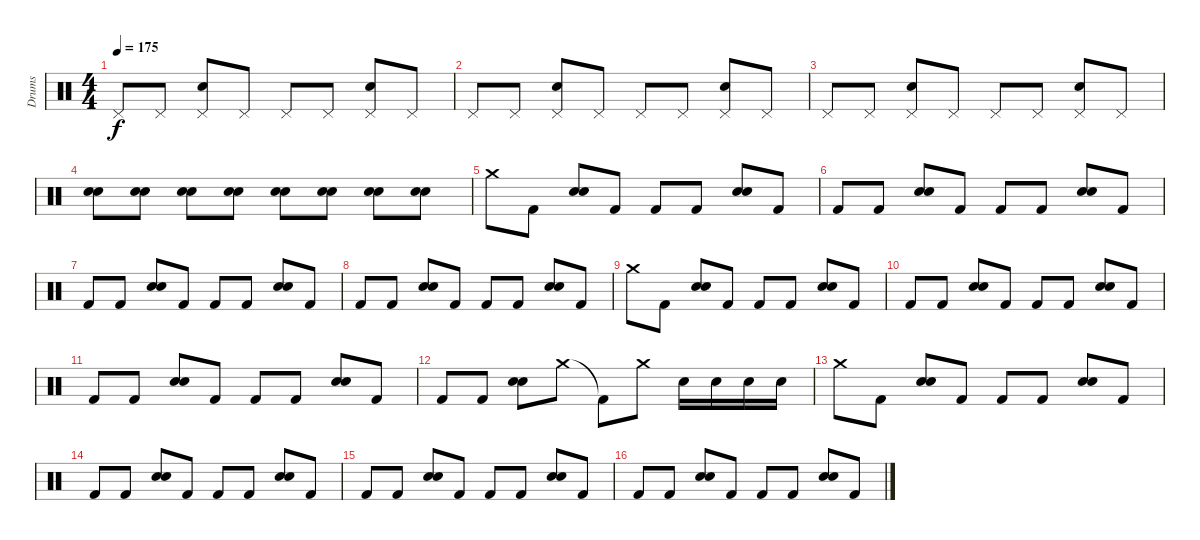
\track ("Drums" "Drums") {instrument percussion}
\staff {score}
\articulation defaults
\ts (4 4)
\tempo 175
\clef neutral
\ks c "Pedal Hi-Hat (hit)".8{dy f} "Pedal Hi-Hat (hit)".8
("Pedal Hi-Hat (hit)" "Snare (hit) 2").8 "Pedal Hi-Hat (hit)".8 "Pedal Hi-Hat (hit)".8 "Pedal Hi-Hat (hit)".8 ("Pedal Hi-Hat (hit)" "Snare (hit) 2").8 "Pedal Hi-Hat (hit)".8 |
"Pedal Hi-Hat (hit)".8 "Pedal Hi-Hat (hit)".8 ("Pedal Hi-Hat (hit)" "Snare (hit) 2").8 "Pedal Hi-Hat (hit)".8 "Pedal Hi-Hat (hit)".8 "Pedal Hi-Hat (hit)".8 ("Pedal Hi-Hat (hit)" "Snare (hit) 2").8 "Pedal Hi-Hat (hit)".8 |
"Pedal Hi-Hat (hit)".8 "Pedal Hi-Hat (hit)".8 ("Pedal Hi-Hat (hit)" "Snare (hit) 2").8 "Pedal Hi-Hat (hit)".8 "Pedal Hi-Hat (hit)".8 "Pedal Hi-Hat (hit)".8 ("Pedal Hi-Hat (hit)" "Snare (hit) 2").8 "Pedal Hi-Hat (hit)".8 |
("Snare (hit) 2" "Snare (hit) 2").8{volume 4} ("Snare (hit) 2" "Snare (hit) 2").8 ("Snare (hit) 2" "Snare (hit) 2").8{volume 13} ("Snare (hit) 2" "Snare (hit) 2").8 ("Snare (hit) 2" "Snare (hit) 2").8 ("Snare (hit) 2" "Snare (hit) 2").8 ("Snare (hit) 2" "Snare (hit) 2").8 ("Snare (hit) 2" "Snare (hit) 2").8 |
"Crash medium (hit)".8 "Kick (hit) 2".8 ("Snare (hit) 2" "Snare (hit) 2").8 "Kick (hit) 2".8 "Kick (hit) 2".8 "Kick (hit) 2".8 ("Snare (hit) 2" "Snare (hit) 2").8 "Kick (hit) 2".8 |
"Kick (hit) 2".8 "Kick (hit) 2".8 ("Snare (hit) 2" "Snare (hit) 2").8 "Kick (hit) 2".8 "Kick (hit) 2".8 "Kick (hit) 2".8 ("Snare (hit) 2" "Snare (hit) 2").8 "Kick (hit) 2".8 |
"Kick (hit) 2".8 "Kick (hit) 2".8 ("Snare (hit) 2" "Snare (hit) 2").8 "Kick (hit) 2".8 "Kick (hit) 2".8 "Kick (hit) 2".8 ("Snare (hit) 2" "Snare (hit) 2").8 "Kick (hit) 2".8 |
"Kick (hit) 2".8 "Kick (hit) 2".8 ("Snare (hit) 2" "Snare (hit) 2").8 "Kick (hit) 2".8 "Kick (hit) 2".8 "Kick (hit) 2".8 ("Snare (hit) 2" "Snare (hit) 2").8 "Kick (hit) 2".8 |
"Crash medium (hit)".8 "Kick (hit) 2".8 ("Snare (hit) 2" "Snare (hit) 2").8 "Kick (hit) 2".8 "Kick (hit) 2".8 "Kick (hit) 2".8 ("Snare (hit) 2" "Snare (hit) 2").8 "Kick (hit) 2".8 |
"Kick (hit) 2".8 "Kick (hit) 2".8 ("Snare (hit) 2" "Snare (hit) 2").8 "Kick (hit) 2".8 "Kick (hit) 2".8 "Kick (hit) 2".8 ("Snare (hit) 2" "Snare (hit) 2").8 "Kick (hit) 2".8 |
"Kick (hit) 2".8 "Kick (hit) 2".8 ("Snare (hit) 2" "Snare (hit) 2").8 "Kick (hit) 2".8 "Kick (hit) 2".8 "Kick (hit) 2".8 ("Snare (hit) 2" "Snare (hit) 2").8 "Kick (hit) 2".8 |
"Kick (hit) 2".8 "Kick (hit) 2".8 ("Snare (hit) 2" "Snare (hit) 2").8 "Crash medium (hit)".8 "Kick (hit) 2"{t}.8 "Crash medium (hit)".8 "Snare (hit) 2".16 "Snare (hit) 2".16 "Snare (hit) 2".16 "Snare (hit) 2".16 |
"Crash medium (hit)".8 "Kick (hit) 2".8 ("Snare (hit) 2" "Snare (hit) 2").8 "Kick (hit) 2".8 "Kick (hit) 2".8 "Kick (hit) 2".8 ("Snare (hit) 2" "Snare (hit) 2").8 "Kick (hit) 2".8 |
"Kick (hit) 2".8 "Kick (hit) 2".8 ("Snare (hit) 2" "Snare (hit) 2").8 "Kick (hit) 2".8 "Kick (hit) 2".8 "Kick (hit) 2".8 ("Snare (hit) 2" "Snare (hit) 2").8 "Kick (hit) 2".8 |
"Kick (hit) 2".8 "Kick (hit) 2".8 ("Snare (hit) 2" "Snare (hit) 2").8 "Kick (hit) 2".8 "Kick (hit) 2".8 "Kick (hit) 2".8 ("Snare (hit) 2" "Snare (hit) 2").8 "Kick (hit) 2".8 |
"Kick (hit) 2".8 "Kick (hit) 2".8 ("Snare (hit) 2" "Snare (hit) 2").8 "Kick (hit) 2".8 "Kick (hit) 2".8 "Kick (hit) 2".8 ("Snare (hit) 2" "Snare (hit) 2").8 "Kick (hit) 2".8
